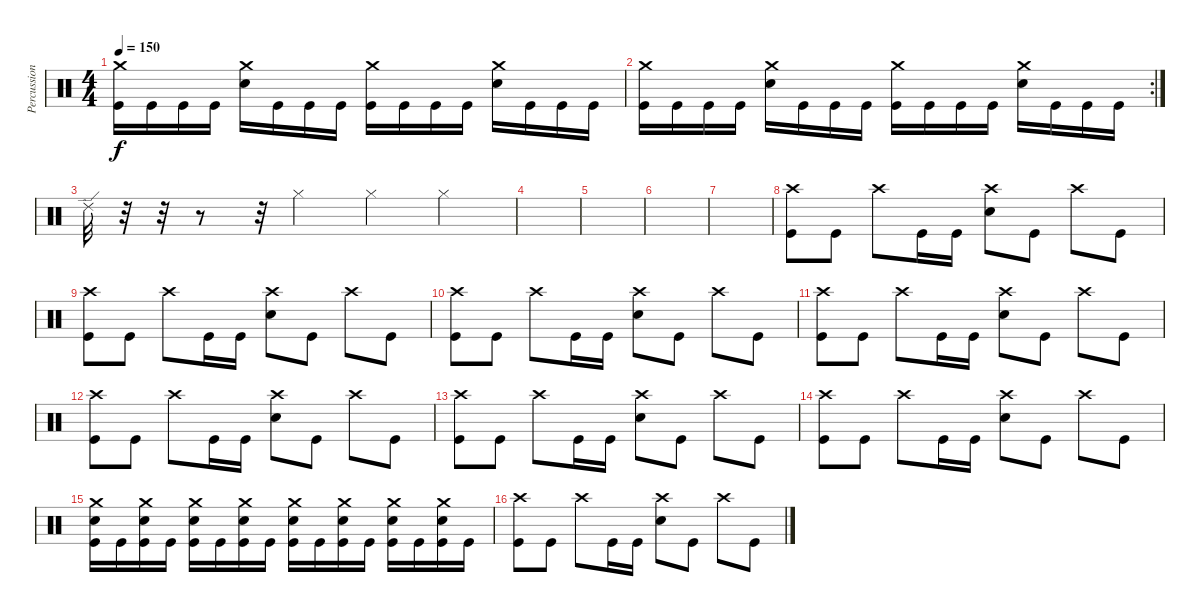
\track ("Percussion" "Percussion") {instrument percussion}
\staff {score}
\articulation defaults
\ts (4 4)
\tempo 150
\clef neutral
\ks c
("Crash medium (hit)" "Kick (hit)").16{dy f} "Kick (hit)".16 "Kick (hit)".16 "Kick (hit)".16 ("Crash medium (hit)" "Electric Snare (hit)").16 "Kick (hit)".16 "Kick (hit)".16 "Kick (hit)".16 ("Crash medium (hit)" "Kick (hit)").16 "Kick (hit)".16 "Kick (hit)".16 "Kick (hit)".16 ("Crash medium (hit)" "Electric Snare (hit)").16 "Kick (hit)".16 "Kick (hit)".16 "Kick (hit)".16 |
\rc 2
("Crash medium (hit)" "Kick (hit)").16 "Kick (hit)".16 "Kick (hit)".16 "Kick (hit)".16 ("Crash medium (hit)" "Electric Snare (hit)").16 "Kick (hit)".16 "Kick (hit)".16 "Kick (hit)".16 ("Crash medium (hit)" "Kick (hit)").16 "Kick (hit)".16 "Kick (hit)".16 "Kick (hit)".16 ("Crash medium (hit)" "Electric Snare (hit)").16 "Kick (hit)".16 "Kick (hit)".16 "Kick (hit)".16 |
"Ride (edge) 2".32 r.32 r.32 r.8 r.32 "Hi-Hat (closed)".4 "Hi-Hat (closed)".4 "Hi-Hat (closed)".4 |
|
|
|
|
("Crash high (hit)" "Kick (hit)").8 "Kick (hit)".8 "Crash high (hit)".8 "Kick (hit)".16 "Kick (hit)".16 ("Crash high (hit)" "Electric Snare (hit)").8 "Kick (hit)".8 "Crash high (hit)".8 "Kick (hit)".8 |
("Crash high (hit)" "Kick (hit)").8 "Kick (hit)".8 "Crash high (hit)".8 "Kick (hit)".16 "Kick (hit)".16 ("Crash high (hit)" "Electric Snare (hit)").8 "Kick (hit)".8 "Crash high (hit)".8 "Kick (hit)".8 |
("Crash high (hit)" "Kick (hit)").8 "Kick (hit)".8 "Crash high (hit)".8 "Kick (hit)".16 "Kick (hit)".16 ("Crash high (hit)" "Electric Snare (hit)").8 "Kick (hit)".8 "Crash high (hit)".8 "Kick (hit)".8 |
("Crash high (hit)" "Kick (hit)").8 "Kick (hit)".8 "Crash high (hit)".8 "Kick (hit)".16 "Kick (hit)".16 ("Crash high (hit)" "Electric Snare (hit)").8 "Kick (hit)".8 "Crash high (hit)".8 "Kick (hit)".8 |
("Crash high (hit)" "Kick (hit)").8 "Kick (hit)".8 "Crash high (hit)".8 "Kick (hit)".16 "Kick (hit)".16 ("Crash high (hit)" "Electric Snare (hit)").8 "Kick (hit)".8 "Crash high (hit)".8 "Kick (hit)".8 |
("Crash high (hit)" "Kick (hit)").8 "Kick (hit)".8 "Crash high (hit)".8 "Kick (hit)".16 "Kick (hit)".16 ("Crash high (hit)" "Electric Snare (hit)").8 "Kick (hit)".8 "Crash high (hit)".8 "Kick (hit)".8 |
("Crash high (hit)" "Kick (hit)").8 "Kick (hit)".8 "Crash high (hit)".8 "Kick (hit)".16 "Kick (hit)".16 ("Crash high (hit)" "Electric Snare (hit)").8 "Kick (hit)".8 "Crash high (hit)".8 "Kick (hit)".8 |
("Crash medium (hit)" "Electric Snare (hit)" "Kick (hit)").16 "Kick (hit)".16 ("Crash medium (hit)" "Electric Snare (hit)" "Kick (hit)").16 "Kick (hit)".16 ("Crash medium (hit)" "Electric Snare (hit)" "Kick (hit)").16 "Kick (hit)".16 ("Crash medium (hit)" "Electric Snare (hit)" "Kick (hit)").16 "Kick (hit)".16 ("Crash medium (hit)" "Electric Snare (hit)" "Kick (hit)").16 "Kick (hit)".16 ("Crash medium (hit)" "Electric Snare (hit)" "Kick (hit)").16 "Kick (hit)".16 ("Crash medium (hit)" "Electric Snare (hit)" "Kick (hit)").16 "Kick (hit)".16 ("Crash medium (hit)" "Electric Snare (hit)" "Kick (hit)").16 "Kick (hit)".16 |
("Crash high (hit)" "Kick (hit)").8 "Kick (hit)".8 "Crash high (hit)".8 "Kick (hit)".16 "Kick (hit)".16 ("Crash high (hit)" "Electric Snare (hit)").8 "Kick (hit)".8 "Crash high (hit)".8 "Kick (hit)".8
